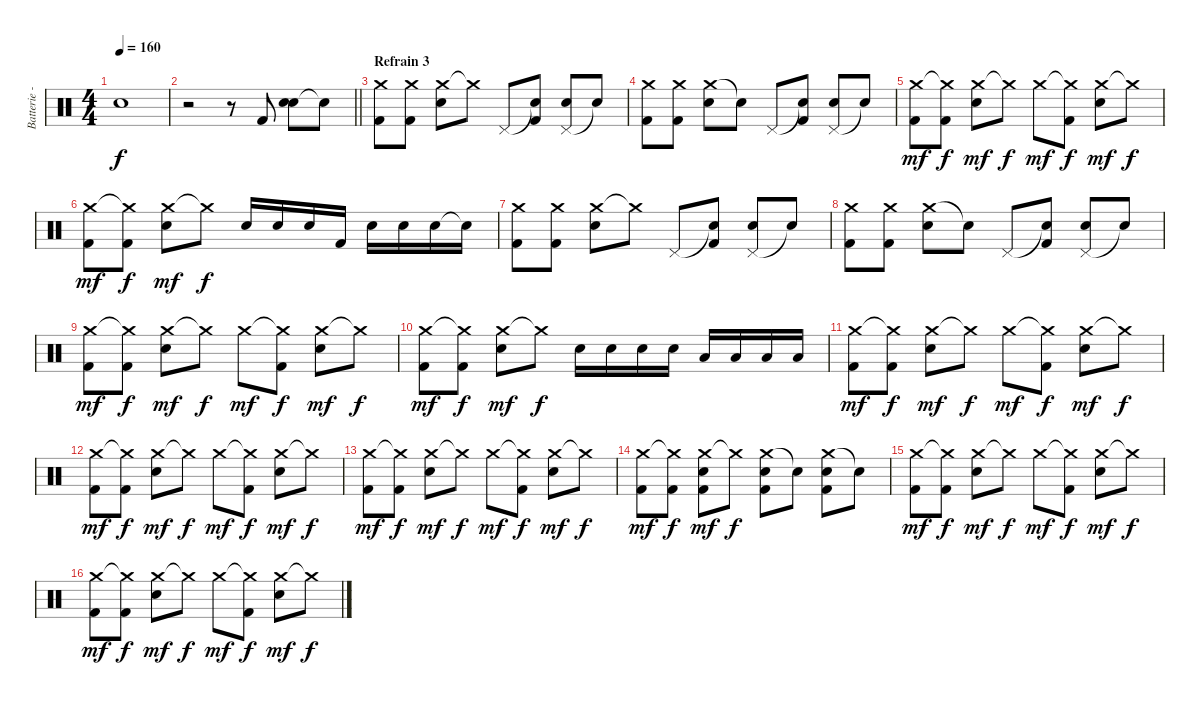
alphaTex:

\track ("Batterie - Mikko" "Batterie -") {instrument percussion}
\staff {score}
\articulation defaults
\ts (4 4)
\tempo 160
\clef neutral
\ks c "Snare (hit) 2".1{dy f}
|
\barLineRight lightlight
r.2 r.8 "Kick (hit) 2".8 ("Snare (hit) 2" "Electric Snare (hit)").8 "Snare (hit)"{t}.8 |
\section ("" "Refrain 3")
("Crash medium (hit)" "Kick (hit) 2").8 ("Crash medium (hit)" "Kick (hit) 2").8 ("Crash medium (hit)" "Snare (hit) 2").8 "Crash medium (hit)"{t}.8 "Pedal Hi-Hat (hit)".8 ("Snare (hit)"{t} "Kick (hit) 2").8 ("Pedal Hi-Hat (hit)" "Snare (hit) 2").8 "Snare (hit)"{t}.8 |
("Crash medium (hit)" "Kick (hit) 2").8 ("Crash medium (hit)" "Kick (hit) 2").8 ("Crash medium (hit)" "Snare (hit) 2").8 "Snare (hit)"{t}.8 "Pedal Hi-Hat (hit)".8 ("Snare (hit)"{t} "Kick (hit) 2").8 ("Pedal Hi-Hat (hit)" "Snare (hit) 2").8 "Snare (hit)"{t}.8 |
("Crash medium (hit)" "Kick (hit) 2").8{dy mf} ("Crash medium (hit)"{t} "Kick (hit) 2").8{dy f} ("Crash medium (hit)" "Snare (hit) 2").8{dy mf} "Crash medium (hit)"{t}.8{dy f} "Crash medium (hit)".8{dy mf} ("Crash medium (hit)"{t} "Kick (hit) 2").8{dy f} ("Crash medium (hit)" "Snare (hit) 2").8{dy mf} "Crash medium (hit)"{t}.8{dy f} |
("Crash medium (hit)" "Kick (hit) 2").8{dy mf} ("Crash medium (hit)"{t} "Kick (hit) 2").8{dy f} ("Crash medium (hit)" "Snare (hit) 2").8{dy mf} "Crash medium (hit)"{t}.8{dy f} "Snare (hit) 2".16 "Snare (hit) 2".16 "Snare (hit) 2".16 "Kick (hit) 2".16 "Snare (hit) 2".16 "Snare (hit) 2".16 "Snare (hit) 2".16 "Snare (hit)"{t}.16 |
("Crash medium (hit)" "Kick (hit) 2").8 ("Crash medium (hit)" "Kick (hit) 2").8 ("Crash medium (hit)" "Snare (hit) 2").8 "Crash medium (hit)"{t}.8 "Pedal Hi-Hat (hit)".8 ("Snare (hit)"{t} "Kick (hit) 2").8 ("Pedal Hi-Hat (hit)" "Snare (hit) 2").8 "Snare (hit)"{t}.8 |
("Crash medium (hit)" "Kick (hit) 2").8 ("Crash medium (hit)" "Kick (hit) 2").8 ("Crash medium (hit)" "Snare (hit) 2").8 "Snare (hit)"{t}.8 "Pedal Hi-Hat (hit)".8 ("Snare (hit)"{t} "Kick (hit) 2").8 ("Pedal Hi-Hat (hit)" "Snare (hit) 2").8 "Snare (hit)"{t}.8 |
("Crash medium (hit)" "Kick (hit) 2").8{dy mf} ("Crash medium (hit)"{t} "Kick (hit) 2").8{dy f} ("Crash medium (hit)" "Snare (hit) 2").8{dy mf} "Crash medium (hit)"{t}.8{dy f} "Crash medium (hit)".8{dy mf} ("Crash medium (hit)"{t} "Kick (hit) 2").8{dy f} ("Crash medium (hit)" "Snare (hit) 2").8{dy mf} "Crash medium (hit)"{t}.8{dy f} |
("Crash medium (hit)" "Kick (hit) 2").8{dy mf} ("Crash medium (hit)"{t} "Kick (hit) 2").8{dy f} ("Crash medium (hit)" "Snare (hit) 2").8{dy mf} "Crash medium (hit)"{t}.8{dy f} "Snare (hit) 2".16 "Snare (hit) 2".16 "Snare (hit) 2".16 "Snare (hit) 2".16 "Low Tom (hit)".16 "Low Tom (hit)".16 "Low Tom (hit)".16 "Low Tom (hit)".16 |
("Crash medium (hit)" "Kick (hit) 2").8{dy mf} ("Crash medium (hit)"{t} "Kick (hit) 2").8{dy f} ("Crash medium (hit)" "Snare (hit) 2").8{dy mf} "Crash medium (hit)"{t}.8{dy f} "Crash medium (hit)".8{dy mf} ("Crash medium (hit)"{t} "Kick (hit) 2").8{dy f} ("Crash medium (hit)" "Snare (hit) 2").8{dy mf} "Crash medium (hit)"{t}.8{dy f} |
("Crash medium (hit)" "Kick (hit) 2").8{dy mf} ("Crash medium (hit)"{t} "Kick (hit) 2").8{dy f} ("Crash medium (hit)" "Snare (hit) 2").8{dy mf} "Crash medium (hit)"{t}.8{dy f} "Crash medium (hit)".8{dy mf} ("Crash medium (hit)"{t} "Kick (hit) 2").8{dy f} ("Crash medium (hit)" "Snare (hit) 2").8{dy mf} "Crash medium (hit)"{t}.8{dy f} |
("Crash medium (hit)" "Kick (hit) 2").8{dy mf} ("Crash medium (hit)"{t} "Kick (hit) 2").8{dy f} ("Crash medium (hit)" "Snare (hit) 2").8{dy mf} "Crash medium (hit)"{t}.8{dy f} "Crash medium (hit)".8{dy mf} ("Crash medium (hit)"{t} "Kick (hit) 2").8{dy f} ("Crash medium (hit)" "Snare (hit) 2").8{dy mf} "Crash medium (hit)"{t}.8{dy f} |
("Crash medium (hit)" "Kick (hit) 2").8{dy mf} ("Crash medium (hit)"{t} "Kick (hit) 2").8{dy f} ("Crash medium (hit)" "Snare (hit) 2" "Kick (hit) 2").8{dy mf} "Crash medium (hit)"{t}.8{dy f} ("Crash medium (hit)" "Snare (hit) 2" "Kick (hit) 2").8 "Snare (hit)"{t}.8 ("Crash medium (hit)" "Snare (hit) 2" "Kick (hit) 2").8 "Snare (hit)"{t}.8 |
("Crash medium (hit)" "Kick (hit) 2").8{dy mf} ("Crash medium (hit)"{t} "Kick (hit) 2").8{dy f} ("Crash medium (hit)" "Snare (hit) 2").8{dy mf} "Crash medium (hit)"{t}.8{dy f} "Crash medium (hit)".8{dy mf} ("Crash medium (hit)"{t} "Kick (hit) 2").8{dy f} ("Crash medium (hit)" "Snare (hit) 2").8{dy mf} "Crash medium (hit)"{t}.8{dy f} |
("Crash medium (hit)" "Kick (hit) 2").8{dy mf} ("Crash medium (hit)"{t} "Kick (hit) 2").8{dy f} ("Crash medium (hit)" "Snare (hit) 2").8{dy mf} "Crash medium (hit)"{t}.8{dy f} "Crash medium (hit)".8{dy mf} ("Crash medium (hit)"{t} "Kick (hit) 2").8{dy f} ("Crash medium (hit)" "Snare (hit) 2").8{dy mf} "Crash medium (hit)"{t}.8{dy f}
